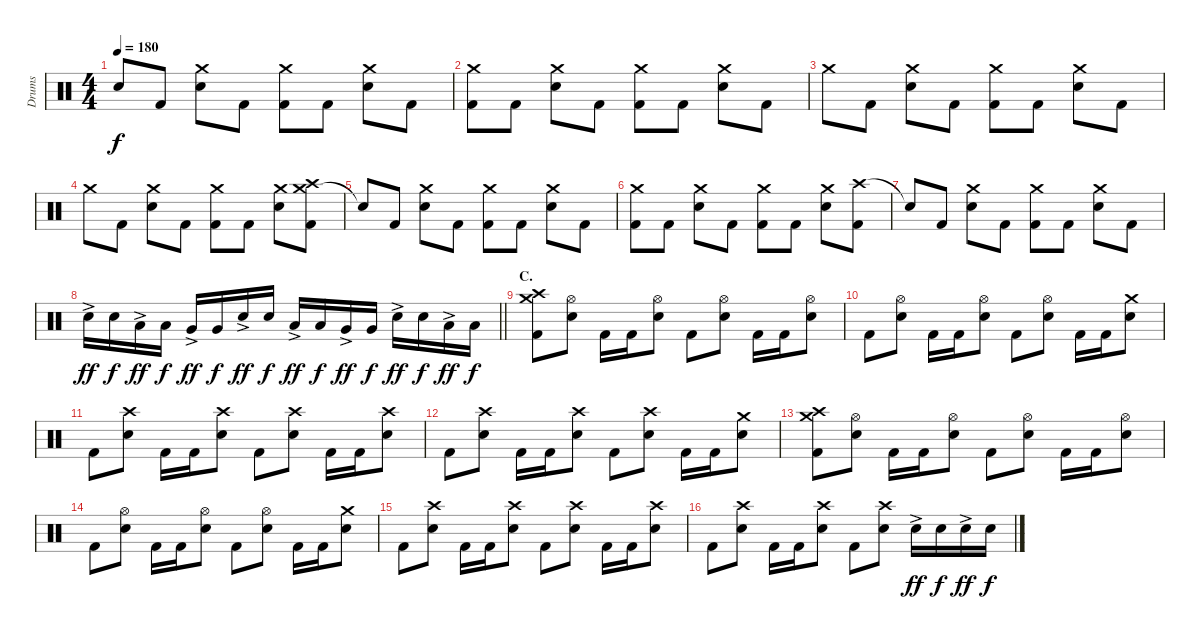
\track ("Drums" "Drums") {instrument percussion}
\staff {score}
\articulation defaults
\ts (4 4)
\tempo 180
\clef neutral
\ks c "Snare (hit)"{t}.8{dy f} "Kick (hit) 2".8
("Crash medium (hit)" "Electric Snare (hit)").8 "Kick (hit) 2".8 ("Crash medium (hit)" "Kick (hit) 2").8 "Kick (hit) 2".8 ("Crash medium (hit)" "Electric Snare (hit)").8 "Kick (hit) 2".8 |
("Crash medium (hit)" "Kick (hit) 2").8 "Kick (hit) 2".8 ("Crash medium (hit)" "Electric Snare (hit)").8 "Kick (hit) 2".8 ("Crash medium (hit)" "Kick (hit) 2").8 "Kick (hit) 2".8 ("Crash medium (hit)" "Electric Snare (hit)").8 "Kick (hit) 2".8 |
"Crash medium (hit)".8 "Kick (hit) 2".8 ("Crash medium (hit)" "Electric Snare (hit)").8 "Kick (hit) 2".8 ("Crash medium (hit)" "Kick (hit) 2").8 "Kick (hit) 2".8 ("Crash medium (hit)" "Electric Snare (hit)").8 "Kick (hit) 2".8 |
"Crash medium (hit)".8 "Kick (hit) 2".8 ("Crash medium (hit)" "Electric Snare (hit)").8 "Kick (hit) 2".8 ("Crash medium (hit)" "Kick (hit) 2").8 "Kick (hit) 2".8 ("Crash medium (hit)" "Electric Snare (hit)").8 ("Crash medium (hit)" "Crash high (hit)" "Kick (hit) 2").8 |
"Snare (hit)"{t}.8 "Kick (hit) 2".8 ("Crash medium (hit)" "Electric Snare (hit)").8 "Kick (hit) 2".8 ("Crash medium (hit)" "Kick (hit) 2").8 "Kick (hit) 2".8 ("Crash medium (hit)" "Electric Snare (hit)").8 "Kick (hit) 2".8 |
("Crash medium (hit)" "Kick (hit) 2").8 "Kick (hit) 2".8 ("Crash medium (hit)" "Electric Snare (hit)").8 "Kick (hit) 2".8 ("Crash medium (hit)" "Kick (hit) 2").8 "Kick (hit) 2".8 ("Crash medium (hit)" "Electric Snare (hit)").8 ("Crash high (hit)" "Kick (hit) 2").8 |
"Snare (hit)"{t}.8 "Kick (hit) 2".8 ("Crash medium (hit)" "Electric Snare (hit)").8 "Kick (hit) 2".8 ("Crash medium (hit)" "Kick (hit) 2").8 "Kick (hit) 2".8 ("Crash medium (hit)" "Electric Snare (hit)").8 "Kick (hit) 2".8 |
\barLineRight lightlight "Electric Snare (hit)"{ac}.16{dy ff} "Electric Snare (hit)".16{dy f} "Low Tom (hit)"{ac}.16{dy ff} "Low Tom (hit)".16{dy f} "Very Low Tom (hit)"{ac}.16{dy ff} "Very Low Tom (hit)".16{dy f} "Electric Snare (hit)"{ac}.16{dy ff} "Electric Snare (hit)".16{dy f} "Low Tom (hit)"{ac}.16{dy ff} "Low Tom (hit)".16{dy f} "Very Low Tom (hit)"{ac}.16{dy ff} "Very Low Tom (hit)".16{dy f} "Electric Snare (hit)"{ac}.16{dy ff} "Electric Snare (hit)".16{dy f} "Low Tom (hit)"{ac}.16{dy ff} "Low Tom (hit)".16{dy f}
|
\section ("" "C.")
("Crash medium (hit)" "Crash high (hit)" "Kick (hit) 2").8 ("Hi-Hat (open)" "Electric Snare (hit)").8 "Kick (hit) 2".16 "Kick (hit) 2".16 ("Hi-Hat (open)" "Electric Snare (hit)").8 "Kick (hit) 2".8 ("Hi-Hat (open)" "Electric Snare (hit)").8 "Kick (hit) 2".16 "Kick (hit) 2".16 ("Hi-Hat (open)" "Electric Snare (hit)").8 |
"Kick (hit) 2".8 ("Hi-Hat (open)" "Electric Snare (hit)").8 "Kick (hit) 2".16 "Kick (hit) 2".16 ("Hi-Hat (open)" "Electric Snare (hit)").8 "Kick (hit) 2".8 ("Hi-Hat (open)" "Electric Snare (hit)").8 "Kick (hit) 2".16 "Kick (hit) 2".16 ("Crash medium (hit)" "Electric Snare (hit)").8 |
"Kick (hit) 2".8 ("Crash high (hit)" "Electric Snare (hit)").8 "Kick (hit) 2".16 "Kick (hit) 2".16 ("Crash high (hit)" "Electric Snare (hit)").8 "Kick (hit) 2".8 ("Crash high (hit)" "Electric Snare (hit)").8 "Kick (hit) 2".16 "Kick (hit) 2".16 ("Crash high (hit)" "Electric Snare (hit)").8 |
"Kick (hit) 2".8 ("Crash high (hit)" "Electric Snare (hit)").8 "Kick (hit) 2".16 "Kick (hit) 2".16 ("Crash high (hit)" "Electric Snare (hit)").8 "Kick (hit) 2".8 ("Crash high (hit)" "Electric Snare (hit)").8 "Kick (hit) 2".16 "Kick (hit) 2".16 ("Crash medium (hit)" "Electric Snare (hit)").8 |
("Crash medium (hit)" "Crash high (hit)" "Kick (hit) 2").8 ("Hi-Hat (open)" "Electric Snare (hit)").8 "Kick (hit) 2".16 "Kick (hit) 2".16 ("Hi-Hat (open)" "Electric Snare (hit)").8 "Kick (hit) 2".8 ("Hi-Hat (open)" "Electric Snare (hit)").8 "Kick (hit) 2".16 "Kick (hit) 2".16 ("Hi-Hat (open)" "Electric Snare (hit)").8 |
"Kick (hit) 2".8 ("Hi-Hat (open)" "Electric Snare (hit)").8 "Kick (hit) 2".16 "Kick (hit) 2".16 ("Hi-Hat (open)" "Electric Snare (hit)").8 "Kick (hit) 2".8 ("Hi-Hat (open)" "Electric Snare (hit)").8 "Kick (hit) 2".16 "Kick (hit) 2".16 ("Crash medium (hit)" "Electric Snare (hit)").8 |
"Kick (hit) 2".8 ("Crash high (hit)" "Electric Snare (hit)").8 "Kick (hit) 2".16 "Kick (hit) 2".16 ("Crash high (hit)" "Electric Snare (hit)").8 "Kick (hit) 2".8 ("Crash high (hit)" "Electric Snare (hit)").8 "Kick (hit) 2".16 "Kick (hit) 2".16 ("Crash high (hit)" "Electric Snare (hit)").8 |
"Kick (hit) 2".8 ("Crash high (hit)" "Electric Snare (hit)").8 "Kick (hit) 2".16 "Kick (hit) 2".16 ("Crash high (hit)" "Electric Snare (hit)").8 "Kick (hit) 2".8 ("Crash high (hit)" "Electric Snare (hit)").8 "Electric Snare (hit)"{ac}.16{dy ff} "Electric Snare (hit)".16{dy f} "Electric Snare (hit)"{ac}.16{dy ff} "Electric Snare (hit)".16{dy f}
